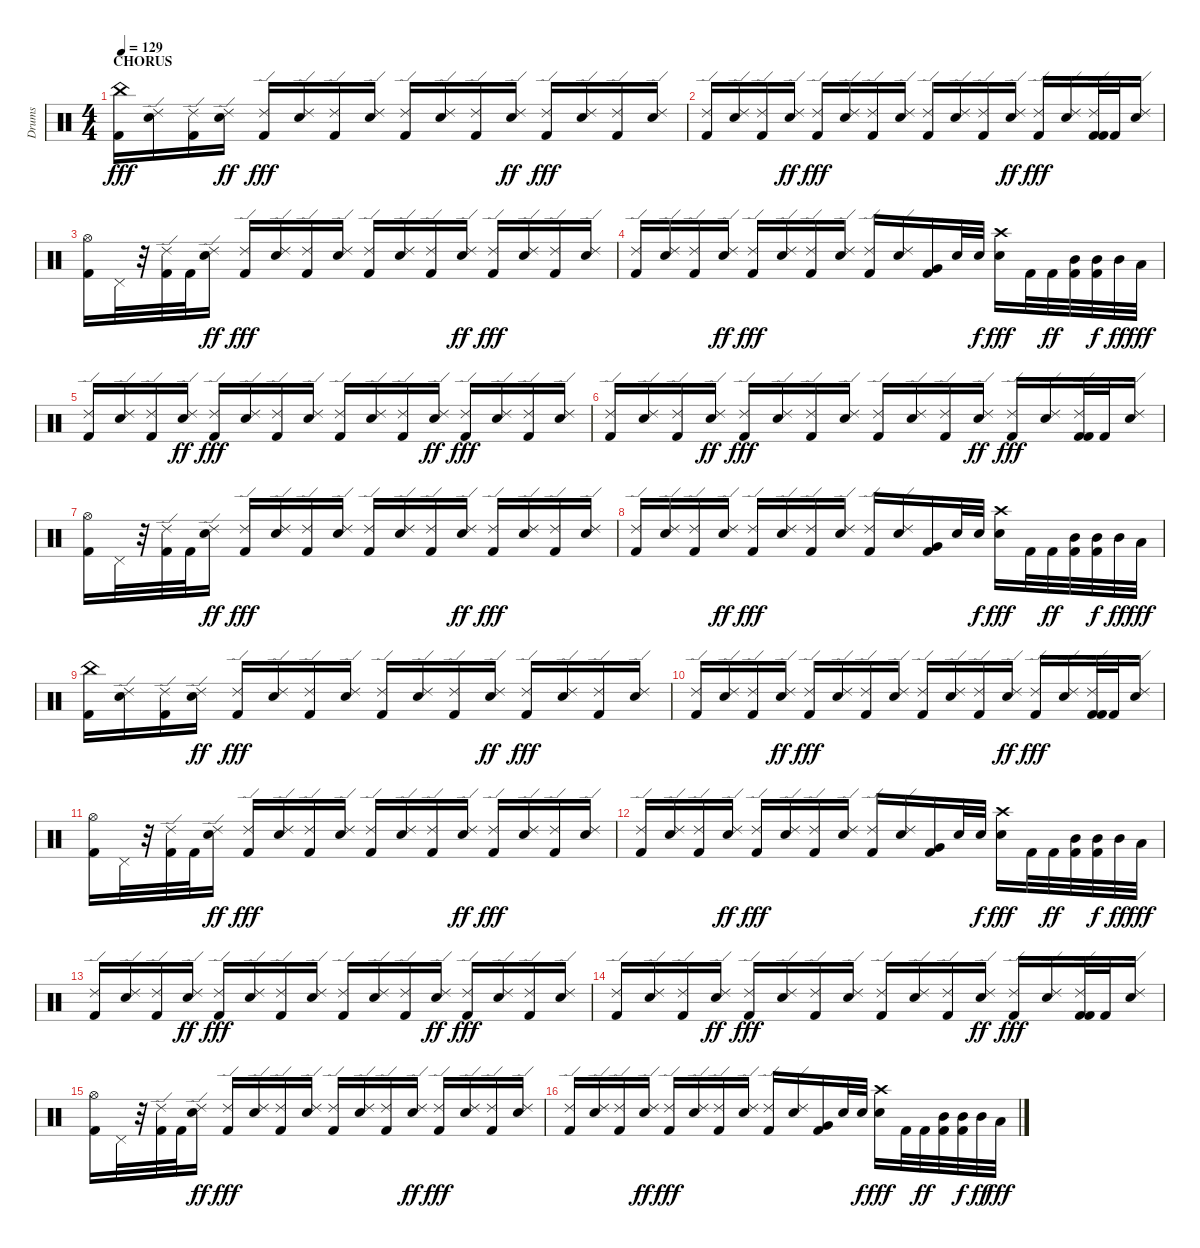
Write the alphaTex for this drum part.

\track ("Drums" "Drums") {instrument percussion}
\staff {score}
\articulation defaults
\ts (4 4)
\section ("" "CHORUS")
\tempo 129
\clef neutral
\ks c
("Kick (hit) 2" "China (hit)").16{dy fff} ("Snare (hit) 2" "Ride (edge) 2").16 ("Kick (hit) 2" "Ride (edge) 2").16 ("Snare (hit) 2" "Ride (edge) 2").16{dy ff} ("Kick (hit) 2" "Ride (edge) 2").16{dy fff} ("Snare (hit) 2" "Ride (edge) 2").16 ("Kick (hit) 2" "Ride (edge) 2").16 ("Snare (hit) 2" "Ride (edge) 2").16 ("Kick (hit) 2" "Ride (edge) 2").16 ("Snare (hit) 2" "Ride (edge) 2").16 ("Kick (hit) 2" "Ride (edge) 2").16 ("Snare (hit) 2" "Ride (edge) 2").16{dy ff} ("Kick (hit) 2" "Ride (edge) 2").16{dy fff} ("Snare (hit) 2" "Ride (edge) 2").16 ("Kick (hit) 2" "Ride (edge) 2").16 ("Snare (hit) 2" "Ride (edge) 2").16 |
("Kick (hit) 2" "Ride (edge) 2").16 ("Snare (hit) 2" "Ride (edge) 2").16 ("Kick (hit) 2" "Ride (edge) 2").16 ("Snare (hit) 2" "Ride (edge) 2").16{dy ff} ("Kick (hit) 2" "Ride (edge) 2").16{dy fff} ("Snare (hit) 2" "Ride (edge) 2").16 ("Kick (hit) 2" "Ride (edge) 2").16 ("Snare (hit) 2" "Ride (edge) 2").16 ("Kick (hit) 2" "Ride (edge) 2").16 ("Snare (hit) 2" "Ride (edge) 2").16 ("Kick (hit) 2" "Ride (edge) 2").16 ("Snare (hit) 2" "Ride (edge) 2").16{dy ff} ("Kick (hit) 2" "Ride (edge) 2").16{dy fff} ("Snare (hit) 2" "Ride (edge) 2").16 ("Kick (hit) 2" "Kick (hit) 2" "Ride (edge) 2").32 "Kick (hit) 2".32 ("Snare (hit) 2" "Ride (edge) 2").16 |
("Kick (hit) 2" "Hi-Hat (open)").16 "Pedal Hi-Hat (hit)".32 r.32 ("Kick (hit) 2" "Ride (edge) 2").32 "Kick (hit) 2".32 ("Snare (hit) 2" "Ride (edge) 2").16{dy ff} ("Kick (hit) 2" "Ride (edge) 2").16{dy fff} ("Snare (hit) 2" "Ride (edge) 2").16 ("Kick (hit) 2" "Ride (edge) 2").16 ("Snare (hit) 2" "Ride (edge) 2").16 ("Kick (hit) 2" "Ride (edge) 2").16 ("Snare (hit) 2" "Ride (edge) 2").16 ("Kick (hit) 2" "Ride (edge) 2").16 ("Snare (hit) 2" "Ride (edge) 2").16{dy ff} ("Kick (hit) 2" "Ride (edge) 2").16{dy fff} ("Snare (hit) 2" "Ride (edge) 2").16 ("Kick (hit) 2" "Ride (edge) 2").16 ("Snare (hit) 2" "Ride (edge) 2").16 |
("Kick (hit) 2" "Ride (edge) 2").16 ("Snare (hit) 2" "Ride (edge) 2").16 ("Kick (hit) 2" "Ride (edge) 2").16 ("Snare (hit) 2" "Ride (edge) 2").16{dy ff} ("Kick (hit) 2" "Ride (edge) 2").16{dy fff} ("Snare (hit) 2" "Ride (edge) 2").16 ("Kick (hit) 2" "Ride (edge) 2").16 ("Snare (hit) 2" "Ride (edge) 2").16 ("Kick (hit) 2" "Ride (edge) 2").16 ("Snare (hit) 2" "Ride (edge) 2").16 ("Kick (hit) 2" "Very Low Tom (hit)").16 "Snare (hit) 2".32 "Snare (hit) 2".32{dy f} ("Snare (hit) 2" "Crash high (hit)").16{dy fff} "Kick (hit) 2".32 "Kick (hit) 2".32{dy ff} ("Kick (hit) 2" "Mid Tom (hit)").32 ("Kick (hit) 2" "Mid Tom (hit)").32{dy f} "Mid Tom (hit)".32{dy ff} "Low Tom (hit)".32{dy fff} |
("Kick (hit) 2" "Ride (edge) 2").16 ("Snare (hit) 2" "Ride (edge) 2").16 ("Kick (hit) 2" "Ride (edge) 2").16 ("Snare (hit) 2" "Ride (edge) 2").16{dy ff} ("Kick (hit) 2" "Ride (edge) 2").16{dy fff} ("Snare (hit) 2" "Ride (edge) 2").16 ("Kick (hit) 2" "Ride (edge) 2").16 ("Snare (hit) 2" "Ride (edge) 2").16 ("Kick (hit) 2" "Ride (edge) 2").16 ("Snare (hit) 2" "Ride (edge) 2").16 ("Kick (hit) 2" "Ride (edge) 2").16 ("Snare (hit) 2" "Ride (edge) 2").16{dy ff} ("Kick (hit) 2" "Ride (edge) 2").16{dy fff} ("Snare (hit) 2" "Ride (edge) 2").16 ("Kick (hit) 2" "Ride (edge) 2").16 ("Snare (hit) 2" "Ride (edge) 2").16 |
("Kick (hit) 2" "Ride (edge) 2").16 ("Snare (hit) 2" "Ride (edge) 2").16 ("Kick (hit) 2" "Ride (edge) 2").16 ("Snare (hit) 2" "Ride (edge) 2").16{dy ff} ("Kick (hit) 2" "Ride (edge) 2").16{dy fff} ("Snare (hit) 2" "Ride (edge) 2").16 ("Kick (hit) 2" "Ride (edge) 2").16 ("Snare (hit) 2" "Ride (edge) 2").16 ("Kick (hit) 2" "Ride (edge) 2").16 ("Snare (hit) 2" "Ride (edge) 2").16 ("Kick (hit) 2" "Ride (edge) 2").16 ("Snare (hit) 2" "Ride (edge) 2").16{dy ff} ("Kick (hit) 2" "Ride (edge) 2").16{dy fff} ("Snare (hit) 2" "Ride (edge) 2").16 ("Kick (hit) 2" "Kick (hit) 2" "Ride (edge) 2").32 "Kick (hit) 2".32 ("Snare (hit) 2" "Ride (edge) 2").16 |
("Kick (hit) 2" "Hi-Hat (open)").16 "Pedal Hi-Hat (hit)".32 r.32 ("Kick (hit) 2" "Ride (edge) 2").32 "Kick (hit) 2".32 ("Snare (hit) 2" "Ride (edge) 2").16{dy ff} ("Kick (hit) 2" "Ride (edge) 2").16{dy fff} ("Snare (hit) 2" "Ride (edge) 2").16 ("Kick (hit) 2" "Ride (edge) 2").16 ("Snare (hit) 2" "Ride (edge) 2").16 ("Kick (hit) 2" "Ride (edge) 2").16 ("Snare (hit) 2" "Ride (edge) 2").16 ("Kick (hit) 2" "Ride (edge) 2").16 ("Snare (hit) 2" "Ride (edge) 2").16{dy ff} ("Kick (hit) 2" "Ride (edge) 2").16{dy fff} ("Snare (hit) 2" "Ride (edge) 2").16 ("Kick (hit) 2" "Ride (edge) 2").16 ("Snare (hit) 2" "Ride (edge) 2").16 |
("Kick (hit) 2" "Ride (edge) 2").16 ("Snare (hit) 2" "Ride (edge) 2").16 ("Kick (hit) 2" "Ride (edge) 2").16 ("Snare (hit) 2" "Ride (edge) 2").16{dy ff} ("Kick (hit) 2" "Ride (edge) 2").16{dy fff} ("Snare (hit) 2" "Ride (edge) 2").16 ("Kick (hit) 2" "Ride (edge) 2").16 ("Snare (hit) 2" "Ride (edge) 2").16 ("Kick (hit) 2" "Ride (edge) 2").16 ("Snare (hit) 2" "Ride (edge) 2").16 ("Kick (hit) 2" "Very Low Tom (hit)").16 "Snare (hit) 2".32 "Snare (hit) 2".32{dy f} ("Snare (hit) 2" "Crash high (hit)").16{dy fff} "Kick (hit) 2".32 "Kick (hit) 2".32{dy ff} ("Kick (hit) 2" "Mid Tom (hit)").32 ("Kick (hit) 2" "Mid Tom (hit)").32{dy f} "Mid Tom (hit)".32{dy ff} "Low Tom (hit)".32{dy fff} |
("Kick (hit) 2" "China (hit)").16 ("Snare (hit) 2" "Ride (edge) 2").16 ("Kick (hit) 2" "Ride (edge) 2").16 ("Snare (hit) 2" "Ride (edge) 2").16{dy ff} ("Kick (hit) 2" "Ride (edge) 2").16{dy fff} ("Snare (hit) 2" "Ride (edge) 2").16 ("Kick (hit) 2" "Ride (edge) 2").16 ("Snare (hit) 2" "Ride (edge) 2").16 ("Kick (hit) 2" "Ride (edge) 2").16 ("Snare (hit) 2" "Ride (edge) 2").16 ("Kick (hit) 2" "Ride (edge) 2").16 ("Snare (hit) 2" "Ride (edge) 2").16{dy ff} ("Kick (hit) 2" "Ride (edge) 2").16{dy fff} ("Snare (hit) 2" "Ride (edge) 2").16 ("Kick (hit) 2" "Ride (edge) 2").16 ("Snare (hit) 2" "Ride (edge) 2").16 |
("Kick (hit) 2" "Ride (edge) 2").16 ("Snare (hit) 2" "Ride (edge) 2").16 ("Kick (hit) 2" "Ride (edge) 2").16 ("Snare (hit) 2" "Ride (edge) 2").16{dy ff} ("Kick (hit) 2" "Ride (edge) 2").16{dy fff} ("Snare (hit) 2" "Ride (edge) 2").16 ("Kick (hit) 2" "Ride (edge) 2").16 ("Snare (hit) 2" "Ride (edge) 2").16 ("Kick (hit) 2" "Ride (edge) 2").16 ("Snare (hit) 2" "Ride (edge) 2").16 ("Kick (hit) 2" "Ride (edge) 2").16 ("Snare (hit) 2" "Ride (edge) 2").16{dy ff} ("Kick (hit) 2" "Ride (edge) 2").16{dy fff} ("Snare (hit) 2" "Ride (edge) 2").16 ("Kick (hit) 2" "Kick (hit) 2" "Ride (edge) 2").32 "Kick (hit) 2".32 ("Snare (hit) 2" "Ride (edge) 2").16 |
("Kick (hit) 2" "Hi-Hat (open)").16 "Pedal Hi-Hat (hit)".32 r.32 ("Kick (hit) 2" "Ride (edge) 2").32 "Kick (hit) 2".32 ("Snare (hit) 2" "Ride (edge) 2").16{dy ff} ("Kick (hit) 2" "Ride (edge) 2").16{dy fff} ("Snare (hit) 2" "Ride (edge) 2").16 ("Kick (hit) 2" "Ride (edge) 2").16 ("Snare (hit) 2" "Ride (edge) 2").16 ("Kick (hit) 2" "Ride (edge) 2").16 ("Snare (hit) 2" "Ride (edge) 2").16 ("Kick (hit) 2" "Ride (edge) 2").16 ("Snare (hit) 2" "Ride (edge) 2").16{dy ff} ("Kick (hit) 2" "Ride (edge) 2").16{dy fff} ("Snare (hit) 2" "Ride (edge) 2").16 ("Kick (hit) 2" "Ride (edge) 2").16 ("Snare (hit) 2" "Ride (edge) 2").16 |
("Kick (hit) 2" "Ride (edge) 2").16 ("Snare (hit) 2" "Ride (edge) 2").16 ("Kick (hit) 2" "Ride (edge) 2").16 ("Snare (hit) 2" "Ride (edge) 2").16{dy ff} ("Kick (hit) 2" "Ride (edge) 2").16{dy fff} ("Snare (hit) 2" "Ride (edge) 2").16 ("Kick (hit) 2" "Ride (edge) 2").16 ("Snare (hit) 2" "Ride (edge) 2").16 ("Kick (hit) 2" "Ride (edge) 2").16 ("Snare (hit) 2" "Ride (edge) 2").16 ("Kick (hit) 2" "Very Low Tom (hit)").16 "Snare (hit) 2".32 "Snare (hit) 2".32{dy f} ("Snare (hit) 2" "Crash high (hit)").16{dy fff} "Kick (hit) 2".32 "Kick (hit) 2".32{dy ff} ("Kick (hit) 2" "Mid Tom (hit)").32 ("Kick (hit) 2" "Mid Tom (hit)").32{dy f} "Mid Tom (hit)".32{dy ff} "Low Tom (hit)".32{dy fff} |
("Kick (hit) 2" "Ride (edge) 2").16 ("Snare (hit) 2" "Ride (edge) 2").16 ("Kick (hit) 2" "Ride (edge) 2").16 ("Snare (hit) 2" "Ride (edge) 2").16{dy ff} ("Kick (hit) 2" "Ride (edge) 2").16{dy fff} ("Snare (hit) 2" "Ride (edge) 2").16 ("Kick (hit) 2" "Ride (edge) 2").16 ("Snare (hit) 2" "Ride (edge) 2").16 ("Kick (hit) 2" "Ride (edge) 2").16 ("Snare (hit) 2" "Ride (edge) 2").16 ("Kick (hit) 2" "Ride (edge) 2").16 ("Snare (hit) 2" "Ride (edge) 2").16{dy ff} ("Kick (hit) 2" "Ride (edge) 2").16{dy fff} ("Snare (hit) 2" "Ride (edge) 2").16 ("Kick (hit) 2" "Ride (edge) 2").16 ("Snare (hit) 2" "Ride (edge) 2").16 |
("Kick (hit) 2" "Ride (edge) 2").16 ("Snare (hit) 2" "Ride (edge) 2").16 ("Kick (hit) 2" "Ride (edge) 2").16 ("Snare (hit) 2" "Ride (edge) 2").16{dy ff} ("Kick (hit) 2" "Ride (edge) 2").16{dy fff} ("Snare (hit) 2" "Ride (edge) 2").16 ("Kick (hit) 2" "Ride (edge) 2").16 ("Snare (hit) 2" "Ride (edge) 2").16 ("Kick (hit) 2" "Ride (edge) 2").16 ("Snare (hit) 2" "Ride (edge) 2").16 ("Kick (hit) 2" "Ride (edge) 2").16 ("Snare (hit) 2" "Ride (edge) 2").16{dy ff} ("Kick (hit) 2" "Ride (edge) 2").16{dy fff} ("Snare (hit) 2" "Ride (edge) 2").16 ("Kick (hit) 2" "Kick (hit) 2" "Ride (edge) 2").32 "Kick (hit) 2".32 ("Snare (hit) 2" "Ride (edge) 2").16 |
("Kick (hit) 2" "Hi-Hat (open)").16 "Pedal Hi-Hat (hit)".32 r.32 ("Kick (hit) 2" "Ride (edge) 2").32 "Kick (hit) 2".32 ("Snare (hit) 2" "Ride (edge) 2").16{dy ff} ("Kick (hit) 2" "Ride (edge) 2").16{dy fff} ("Snare (hit) 2" "Ride (edge) 2").16 ("Kick (hit) 2" "Ride (edge) 2").16 ("Snare (hit) 2" "Ride (edge) 2").16 ("Kick (hit) 2" "Ride (edge) 2").16 ("Snare (hit) 2" "Ride (edge) 2").16 ("Kick (hit) 2" "Ride (edge) 2").16 ("Snare (hit) 2" "Ride (edge) 2").16{dy ff} ("Kick (hit) 2" "Ride (edge) 2").16{dy fff} ("Snare (hit) 2" "Ride (edge) 2").16 ("Kick (hit) 2" "Ride (edge) 2").16 ("Snare (hit) 2" "Ride (edge) 2").16 |
("Kick (hit) 2" "Ride (edge) 2").16 ("Snare (hit) 2" "Ride (edge) 2").16 ("Kick (hit) 2" "Ride (edge) 2").16 ("Snare (hit) 2" "Ride (edge) 2").16{dy ff} ("Kick (hit) 2" "Ride (edge) 2").16{dy fff} ("Snare (hit) 2" "Ride (edge) 2").16 ("Kick (hit) 2" "Ride (edge) 2").16 ("Snare (hit) 2" "Ride (edge) 2").16 ("Kick (hit) 2" "Ride (edge) 2").16 ("Snare (hit) 2" "Ride (edge) 2").16 ("Kick (hit) 2" "Very Low Tom (hit)").16 "Snare (hit) 2".32 "Snare (hit) 2".32{dy f} ("Snare (hit) 2" "Crash high (hit)").16{dy fff} "Kick (hit) 2".32 "Kick (hit) 2".32{dy ff} ("Kick (hit) 2" "Mid Tom (hit)").32 ("Kick (hit) 2" "Mid Tom (hit)").32{dy f} "Mid Tom (hit)".32{dy ff} "Low Tom (hit)".32{dy fff}
